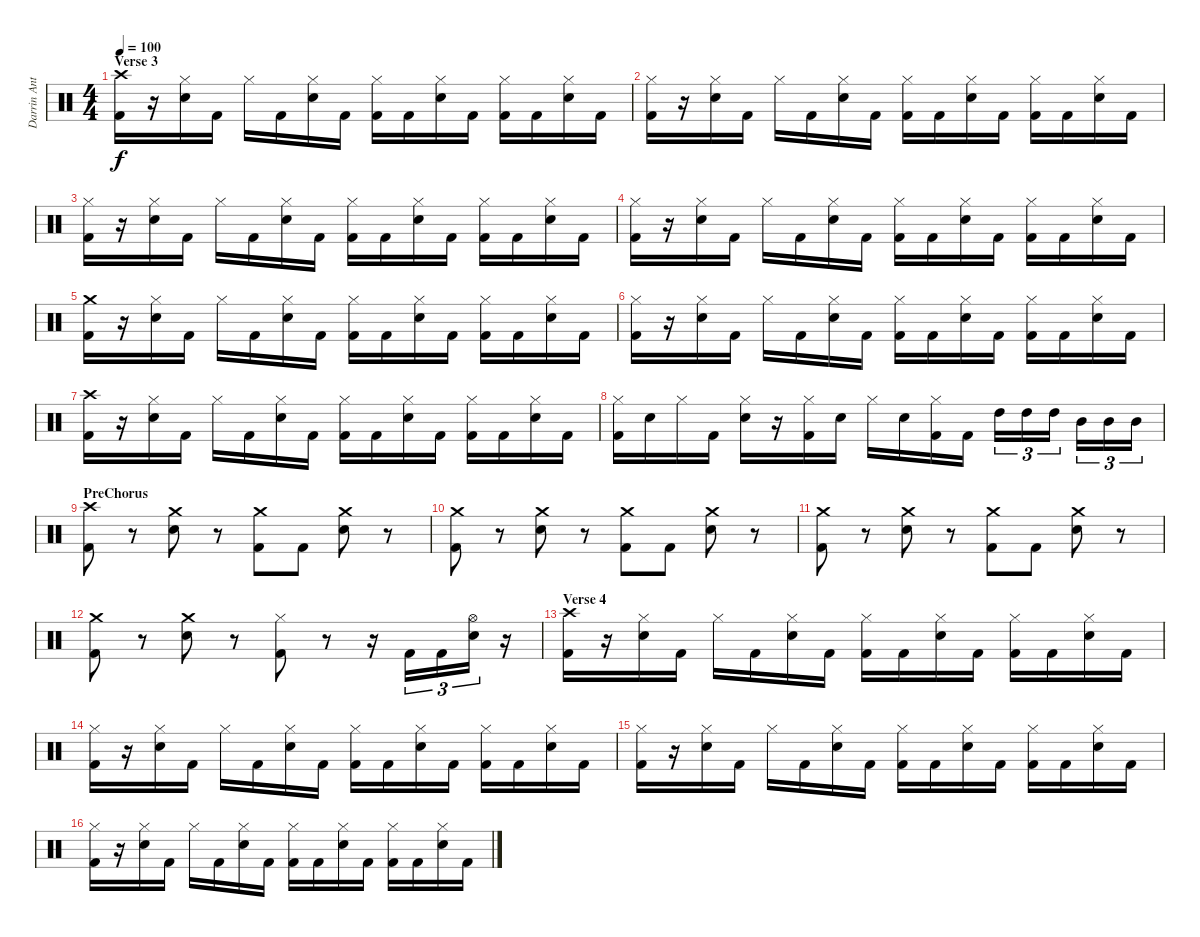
\track ("Darrin Anthony" "Darrin Ant") {instrument percussion}
\staff {score}
\articulation defaults
\ts (4 4)
\section ("" "Verse 3")
\tempo 100
\clef neutral
\ks c
("Crash high (hit)" "Kick (hit) 2").16{dy f} r.16 ("Hi-Hat (closed)" "Electric Snare (hit)").16 "Kick (hit) 2".16 "Hi-Hat (closed)".16 "Kick (hit) 2".16 ("Hi-Hat (closed)" "Electric Snare (hit)").16 "Kick (hit) 2".16 ("Hi-Hat (closed)" "Kick (hit) 2").16 "Kick (hit) 2".16 ("Hi-Hat (closed)" "Electric Snare (hit)").16 "Kick (hit) 2".16 ("Hi-Hat (closed)" "Kick (hit) 2").16 "Kick (hit) 2".16 ("Hi-Hat (closed)" "Electric Snare (hit)").16 "Kick (hit) 2".16 |
("Hi-Hat (closed)" "Kick (hit) 2").16 r.16 ("Hi-Hat (closed)" "Electric Snare (hit)").16 "Kick (hit) 2".16 "Hi-Hat (closed)".16 "Kick (hit) 2".16 ("Hi-Hat (closed)" "Electric Snare (hit)").16 "Kick (hit) 2".16 ("Hi-Hat (closed)" "Kick (hit) 2").16 "Kick (hit) 2".16 ("Hi-Hat (closed)" "Electric Snare (hit)").16 "Kick (hit) 2".16 ("Hi-Hat (closed)" "Kick (hit) 2").16 "Kick (hit) 2".16 ("Hi-Hat (closed)" "Electric Snare (hit)").16 "Kick (hit) 2".16 |
("Hi-Hat (closed)" "Kick (hit) 2").16 r.16 ("Hi-Hat (closed)" "Electric Snare (hit)").16 "Kick (hit) 2".16 "Hi-Hat (closed)".16 "Kick (hit) 2".16 ("Hi-Hat (closed)" "Electric Snare (hit)").16 "Kick (hit) 2".16 ("Hi-Hat (closed)" "Kick (hit) 2").16 "Kick (hit) 2".16 ("Hi-Hat (closed)" "Electric Snare (hit)").16 "Kick (hit) 2".16 ("Hi-Hat (closed)" "Kick (hit) 2").16 "Kick (hit) 2".16 ("Hi-Hat (closed)" "Electric Snare (hit)").16 "Kick (hit) 2".16 |
("Hi-Hat (closed)" "Kick (hit) 2").16 r.16 ("Hi-Hat (closed)" "Electric Snare (hit)").16 "Kick (hit) 2".16 "Hi-Hat (closed)".16 "Kick (hit) 2".16 ("Hi-Hat (closed)" "Electric Snare (hit)").16 "Kick (hit) 2".16 ("Hi-Hat (closed)" "Kick (hit) 2").16 "Kick (hit) 2".16 ("Hi-Hat (closed)" "Electric Snare (hit)").16 "Kick (hit) 2".16 ("Hi-Hat (closed)" "Kick (hit) 2").16 "Kick (hit) 2".16 ("Hi-Hat (closed)" "Electric Snare (hit)").16 "Kick (hit) 2".16 |
("Crash medium (hit)" "Kick (hit) 2").16 r.16 ("Hi-Hat (closed)" "Electric Snare (hit)").16 "Kick (hit) 2".16 "Hi-Hat (closed)".16 "Kick (hit) 2".16 ("Hi-Hat (closed)" "Electric Snare (hit)").16 "Kick (hit) 2".16 ("Hi-Hat (closed)" "Kick (hit) 2").16 "Kick (hit) 2".16 ("Hi-Hat (closed)" "Electric Snare (hit)").16 "Kick (hit) 2".16 ("Hi-Hat (closed)" "Kick (hit) 2").16 "Kick (hit) 2".16 ("Hi-Hat (closed)" "Electric Snare (hit)").16 "Kick (hit) 2".16 |
("Hi-Hat (closed)" "Kick (hit) 2").16 r.16 ("Hi-Hat (closed)" "Electric Snare (hit)").16 "Kick (hit) 2".16 "Hi-Hat (closed)".16 "Kick (hit) 2".16 ("Hi-Hat (closed)" "Electric Snare (hit)").16 "Kick (hit) 2".16 ("Hi-Hat (closed)" "Kick (hit) 2").16 "Kick (hit) 2".16 ("Hi-Hat (closed)" "Electric Snare (hit)").16 "Kick (hit) 2".16 ("Hi-Hat (closed)" "Kick (hit) 2").16 "Kick (hit) 2".16 ("Hi-Hat (closed)" "Electric Snare (hit)").16 "Kick (hit) 2".16 |
("Crash high (hit)" "Kick (hit) 2").16 r.16 ("Hi-Hat (closed)" "Electric Snare (hit)").16 "Kick (hit) 2".16 "Hi-Hat (closed)".16 "Kick (hit) 2".16 ("Hi-Hat (closed)" "Electric Snare (hit)").16 "Kick (hit) 2".16 ("Hi-Hat (closed)" "Kick (hit) 2").16 "Kick (hit) 2".16 ("Hi-Hat (closed)" "Electric Snare (hit)").16 "Kick (hit) 2".16 ("Hi-Hat (closed)" "Kick (hit) 2").16 "Kick (hit) 2".16 ("Hi-Hat (closed)" "Electric Snare (hit)").16 "Kick (hit) 2".16 |
("Hi-Hat (closed)" "Kick (hit) 2").16 "Electric Snare (hit)".16 "Hi-Hat (closed)".16 "Kick (hit) 2".16 ("Hi-Hat (closed)" "Electric Snare (hit)").16 r.16 ("Hi-Hat (closed)" "Kick (hit) 2").16 "Electric Snare (hit)".16 "Hi-Hat (closed)".16 "Electric Snare (hit)".16 ("Hi-Hat (closed)" "Kick (hit) 2").16 "Kick (hit) 2".16 "High Tom (hit)".16{tu (3 2)} "High Tom (hit)".16{tu (3 2)} "High Tom (hit)".16{tu (3 2)} "Mid Tom (hit)".16{tu (3 2)} "Mid Tom (hit)".16{tu (3 2)} "Mid Tom (hit)".16{tu (3 2)} |
\section ("" "PreChorus")
("Crash high (hit)" "Kick (hit) 2").8 r.8 ("Crash medium (hit)" "Electric Snare (hit)").8 r.8 ("Crash medium (hit)" "Kick (hit) 2").8 "Kick (hit) 2".8 ("Crash medium (hit)" "Electric Snare (hit)").8 r.8 |
("Crash medium (hit)" "Kick (hit) 2").8 r.8 ("Crash medium (hit)" "Electric Snare (hit)").8 r.8 ("Crash medium (hit)" "Kick (hit) 2").8 "Kick (hit) 2".8 ("Crash medium (hit)" "Electric Snare (hit)").8 r.8 |
("Crash medium (hit)" "Kick (hit) 2").8 r.8 ("Crash medium (hit)" "Electric Snare (hit)").8 r.8 ("Crash medium (hit)" "Kick (hit) 2").8 "Kick (hit) 2".8 ("Crash medium (hit)" "Electric Snare (hit)").8 r.8 |
("Crash medium (hit)" "Kick (hit) 2").8 r.8 ("Crash medium (hit)" "Electric Snare (hit)").8 r.8 ("Hi-Hat (closed)" "Kick (hit) 2").8 r.8 r.16 "Kick (hit) 2".16{tu (3 2)} "Kick (hit) 2".16{tu (3 2)} ("Hi-Hat (open)" "Electric Snare (hit)").16{tu (3 2)} r.16 |
\section ("" "Verse 4")
("Crash high (hit)" "Kick (hit) 2").16 r.16 ("Hi-Hat (closed)" "Electric Snare (hit)").16 "Kick (hit) 2".16 "Hi-Hat (closed)".16 "Kick (hit) 2".16 ("Hi-Hat (closed)" "Electric Snare (hit)").16 "Kick (hit) 2".16 ("Hi-Hat (closed)" "Kick (hit) 2").16 "Kick (hit) 2".16 ("Hi-Hat (closed)" "Electric Snare (hit)").16 "Kick (hit) 2".16 ("Hi-Hat (closed)" "Kick (hit) 2").16 "Kick (hit) 2".16 ("Hi-Hat (closed)" "Electric Snare (hit)").16 "Kick (hit) 2".16 |
("Hi-Hat (closed)" "Kick (hit) 2").16 r.16 ("Hi-Hat (closed)" "Electric Snare (hit)").16 "Kick (hit) 2".16 "Hi-Hat (closed)".16 "Kick (hit) 2".16 ("Hi-Hat (closed)" "Electric Snare (hit)").16 "Kick (hit) 2".16 ("Hi-Hat (closed)" "Kick (hit) 2").16 "Kick (hit) 2".16 ("Hi-Hat (closed)" "Electric Snare (hit)").16 "Kick (hit) 2".16 ("Hi-Hat (closed)" "Kick (hit) 2").16 "Kick (hit) 2".16 ("Hi-Hat (closed)" "Electric Snare (hit)").16 "Kick (hit) 2".16 |
("Hi-Hat (closed)" "Kick (hit) 2").16 r.16 ("Hi-Hat (closed)" "Electric Snare (hit)").16 "Kick (hit) 2".16 "Hi-Hat (closed)".16 "Kick (hit) 2".16 ("Hi-Hat (closed)" "Electric Snare (hit)").16 "Kick (hit) 2".16 ("Hi-Hat (closed)" "Kick (hit) 2").16 "Kick (hit) 2".16 ("Hi-Hat (closed)" "Electric Snare (hit)").16 "Kick (hit) 2".16 ("Hi-Hat (closed)" "Kick (hit) 2").16 "Kick (hit) 2".16 ("Hi-Hat (closed)" "Electric Snare (hit)").16 "Kick (hit) 2".16 |
("Hi-Hat (closed)" "Kick (hit) 2").16 r.16 ("Hi-Hat (closed)" "Electric Snare (hit)").16 "Kick (hit) 2".16 "Hi-Hat (closed)".16 "Kick (hit) 2".16 ("Hi-Hat (closed)" "Electric Snare (hit)").16 "Kick (hit) 2".16 ("Hi-Hat (closed)" "Kick (hit) 2").16 "Kick (hit) 2".16 ("Hi-Hat (closed)" "Electric Snare (hit)").16 "Kick (hit) 2".16 ("Hi-Hat (closed)" "Kick (hit) 2").16 "Kick (hit) 2".16 ("Hi-Hat (closed)" "Electric Snare (hit)").16 "Kick (hit) 2".16
